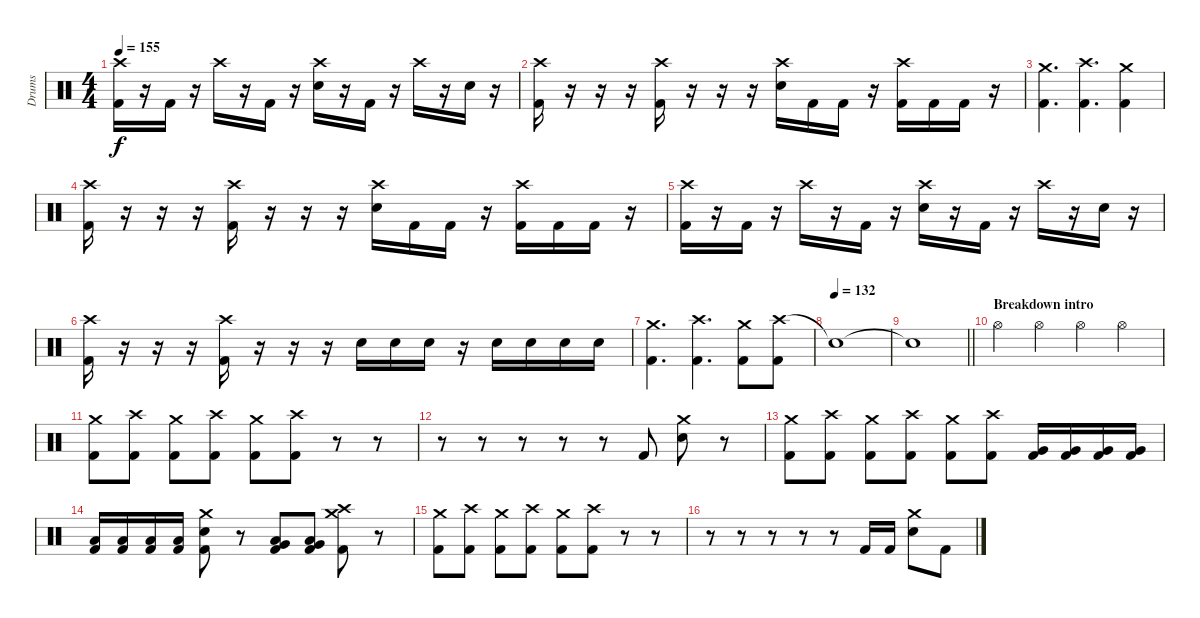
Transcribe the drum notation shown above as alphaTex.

\track ("Drums" "Drums") {instrument percussion}
\staff {score}
\articulation defaults
\ts (4 4)
\tempo 155
\clef neutral
\ks c
("Crash high (hit)" "Kick (hit) 2").16{dy f} r.16 "Kick (hit) 2".16 r.16 "Crash high (hit)".16 r.16 "Kick (hit) 2".16 r.16 ("Crash high (hit)" "Electric Snare (hit)").16 r.16 "Kick (hit) 2".16 r.16 "Crash high (hit)".16 r.16 "Electric Snare (hit)".16 r.16 |
("Crash high (hit)" "Kick (hit) 2").16 r.16 r.16 r.16 ("Crash high (hit)" "Kick (hit) 2").16 r.16 r.16 r.16 ("Crash high (hit)" "Electric Snare (hit)").16 "Kick (hit) 2".16 "Kick (hit) 2".16 r.16 ("Crash high (hit)" "Kick (hit) 2").16 "Kick (hit) 2".16 "Kick (hit) 2".16 r.16 |
("Crash medium (hit)" "Kick (hit) 2").4{d} ("Crash high (hit)" "Kick (hit) 2").4{d} ("Crash medium (hit)" "Kick (hit) 2").4 |
("Crash high (hit)" "Kick (hit) 2").16 r.16 r.16 r.16 ("Crash high (hit)" "Kick (hit) 2").16 r.16 r.16 r.16 ("Crash high (hit)" "Electric Snare (hit)").16 "Kick (hit) 2".16 "Kick (hit) 2".16 r.16 ("Crash high (hit)" "Kick (hit) 2").16 "Kick (hit) 2".16 "Kick (hit) 2".16 r.16 |
("Crash high (hit)" "Kick (hit) 2").16 r.16 "Kick (hit) 2".16 r.16 "Crash high (hit)".16 r.16 "Kick (hit) 2".16 r.16 ("Crash high (hit)" "Electric Snare (hit)").16 r.16 "Kick (hit) 2".16 r.16 "Crash high (hit)".16 r.16 "Electric Snare (hit)".16 r.16 |
("Crash high (hit)" "Kick (hit) 2").16 r.16 r.16 r.16 ("Crash high (hit)" "Kick (hit) 2").16 r.16 r.16 r.16 "Electric Snare (hit)".16 "Electric Snare (hit)".16 "Electric Snare (hit)".16 r.16 "Electric Snare (hit)".16 "Electric Snare (hit)".16 "Electric Snare (hit)".16 "Electric Snare (hit)".16 |
("Crash medium (hit)" "Kick (hit) 2").4{d} ("Crash high (hit)" "Kick (hit) 2").4{d} ("Crash medium (hit)" "Kick (hit) 2").8 ("Crash high (hit)" "Kick (hit) 2").8 |
\tempo 135
\tempo (132)
"Snare (hit)"{t}.1 |
\barLineRight lightlight "Snare (hit)"{t}.1
|
\section ("" "Breakdown intro")
"Hi-Hat (open)".4 "Hi-Hat (open)".4 "Hi-Hat (open)".4 "Hi-Hat (open)".4 |
("Crash medium (hit)" "Kick (hit) 2").8 ("Crash high (hit)" "Kick (hit) 2").8 ("Crash medium (hit)" "Kick (hit) 2").8 ("Crash high (hit)" "Kick (hit) 2").8 ("Crash medium (hit)" "Kick (hit) 2").8 ("Crash high (hit)" "Kick (hit) 2").8 r.8 r.8 |
r.8 r.8 r.8 r.8 r.8 "Kick (hit) 2".8 ("Crash medium (hit)" "Electric Snare (hit)").8 r.8 |
("Crash medium (hit)" "Kick (hit) 2").8 ("Crash high (hit)" "Kick (hit) 2").8 ("Crash medium (hit)" "Kick (hit) 2").8 ("Crash high (hit)" "Kick (hit) 2").8 ("Crash medium (hit)" "Kick (hit) 2").8 ("Crash high (hit)" "Kick (hit) 2").8 ("Very Low Tom (hit)" "Kick (hit) 2").16 ("Very Low Tom (hit)" "Kick (hit) 2").16 ("Very Low Tom (hit)" "Kick (hit) 2").16 ("Very Low Tom (hit)" "Kick (hit) 2").16 |
("Low Floor Tom (hit)" "Kick (hit) 2").16 ("Low Floor Tom (hit)" "Kick (hit) 2").16 ("Low Floor Tom (hit)" "Kick (hit) 2").16 ("Low Floor Tom (hit)" "Kick (hit) 2").16 ("Crash medium (hit)" "Electric Snare (hit)" "Kick (hit) 2").8 r.8 ("Low Floor Tom (hit)" "Very Low Tom (hit)" "Kick (hit) 2").8 ("Low Floor Tom (hit)" "Very Low Tom (hit)" "Kick (hit) 2").8 ("Crash medium (hit)" "Crash high (hit)" "Kick (hit) 2").8 r.8 |
("Crash medium (hit)" "Kick (hit) 2").8 ("Crash high (hit)" "Kick (hit) 2").8 ("Crash medium (hit)" "Kick (hit) 2").8 ("Crash high (hit)" "Kick (hit) 2").8 ("Crash medium (hit)" "Kick (hit) 2").8 ("Crash high (hit)" "Kick (hit) 2").8 r.8 r.8 |
r.8 r.8 r.8 r.8 r.8 "Kick (hit) 2".16 "Kick (hit) 2".16 ("Crash medium (hit)" "Electric Snare (hit)").8 "Kick (hit) 2".8
